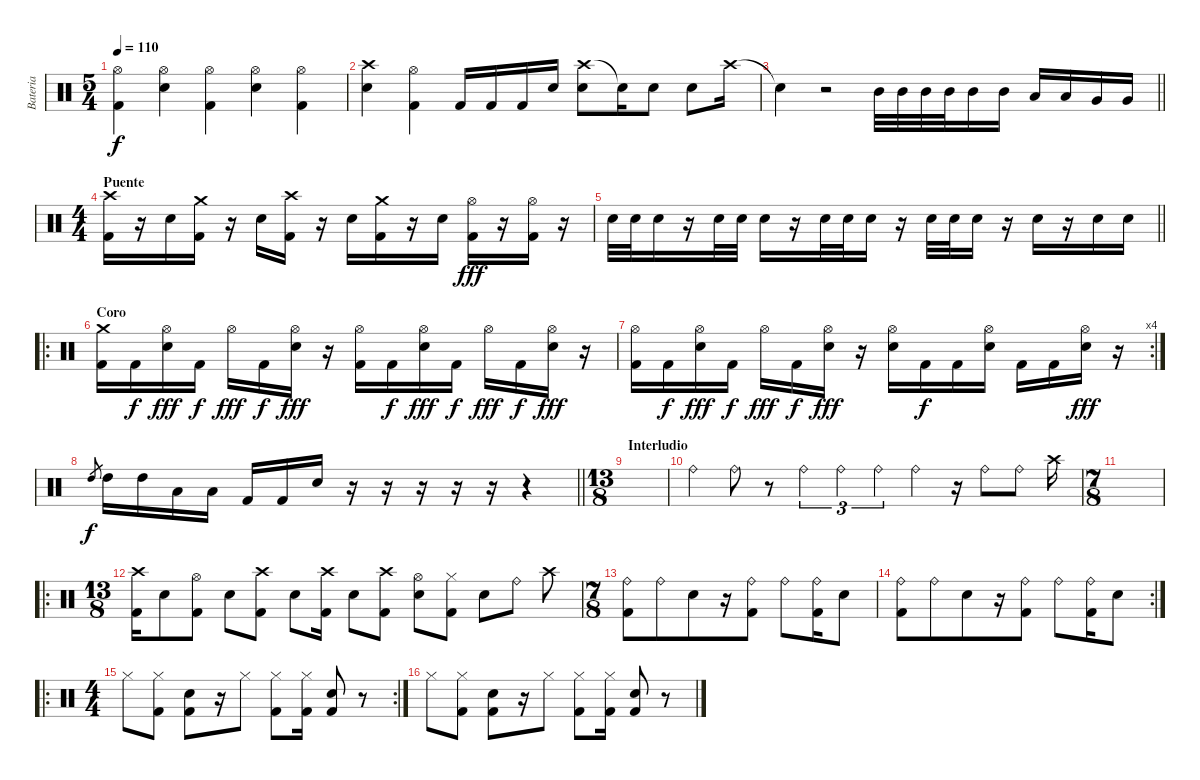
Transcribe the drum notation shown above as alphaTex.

\track ("Bateria " "Bateria ") {instrument percussion}
\staff {score}
\articulation defaults
\ts (5 4)
\tempo 110
\clef neutral
\ks c
("Hi-Hat (open)" "Kick (hit) 2").4{dy f} ("Hi-Hat (open)" "Electric Snare (hit)").4 ("Hi-Hat (open)" "Kick (hit) 2").4 ("Hi-Hat (open)" "Electric Snare (hit)").4 ("Hi-Hat (open)" "Kick (hit) 2").4 |
("Crash high (hit)" "Electric Snare (hit)").4 ("Hi-Hat (open)" "Kick (hit) 2").4 "Kick (hit) 2".16 "Kick (hit) 2".16 "Kick (hit) 2".16 "Electric Snare (hit)".16 ("Crash high (hit)" "Electric Snare (hit)").8 "Snare (hit)"{t}.16 "Electric Snare (hit)".8 "Electric Snare (hit)".8 "Crash high (hit)".16 |
\barLineRight lightlight "Snare (hit)"{t}.4
r.2 "Mid Tom (hit)".32 "Mid Tom (hit)".32 "Mid Tom (hit)".32 "Mid Tom (hit)".32 "Mid Tom (hit)".16 "Mid Tom (hit)".16 "Low Tom (hit)".16 "Low Tom (hit)".16 "Very Low Tom (hit)".16 "Very Low Tom (hit)".16 |
\ts (4 4)
\section ("" "Puente")
("Crash high (hit)" "Kick (hit) 2").16 r.16 "Electric Snare (hit)".16 ("Crash medium (hit)" "Kick (hit) 2").16 r.16 "Electric Snare (hit)".16 ("Crash high (hit)" "Kick (hit) 2").16 r.16 "Electric Snare (hit)".16 ("Crash medium (hit)" "Kick (hit) 2").16 r.16 "Electric Snare (hit)".16 ("Hi-Hat (open)" "Kick (hit) 2").16{dy fff} r.16 ("Hi-Hat (open)" "Kick (hit) 2").16 r.16 |
\barLineRight lightlight "Electric Snare (hit)".32 "Electric Snare (hit)".32 "Electric Snare (hit)".16
r.16 "Electric Snare (hit)".32 "Electric Snare (hit)".32 "Electric Snare (hit)".16 r.16 "Electric Snare (hit)".32 "Electric Snare (hit)".32 "Electric Snare (hit)".16 r.16 "Electric Snare (hit)".32 "Electric Snare (hit)".32 "Electric Snare (hit)".16 r.16 "Electric Snare (hit)".16 r.16 "Electric Snare (hit)".16 "Electric Snare (hit)".16 |
\ro
\section ("" "Coro")
("Crash medium (hit)" "Kick (hit) 2").16 "Kick (hit) 2".16{dy f} ("Hi-Hat (open)" "Electric Snare (hit)").16{dy fff} "Kick (hit) 2".16{dy f} "Hi-Hat (open)".16{dy fff} "Kick (hit) 2".16{dy f} ("Hi-Hat (open)" "Electric Snare (hit)").16{dy fff} r.16 ("Hi-Hat (open)" "Kick (hit) 2").16 "Kick (hit) 2".16{dy f} ("Hi-Hat (open)" "Electric Snare (hit)").16{dy fff} "Kick (hit) 2".16{dy f} "Hi-Hat (open)".16{dy fff} "Kick (hit) 2".16{dy f} ("Hi-Hat (open)" "Electric Snare (hit)").16{dy fff} r.16 |
\rc 4
("Hi-Hat (open)" "Kick (hit) 2").16 "Kick (hit) 2".16{dy f} ("Hi-Hat (open)" "Electric Snare (hit)").16{dy fff} "Kick (hit) 2".16{dy f} "Hi-Hat (open)".16{dy fff} "Kick (hit) 2".16{dy f} ("Hi-Hat (open)" "Electric Snare (hit)").16{dy fff} r.16 ("Hi-Hat (open)" "Electric Snare (hit)").16 "Kick (hit) 2".16{dy f} "Kick (hit) 2".16 ("Hi-Hat (open)" "Electric Snare (hit)").16 "Kick (hit) 2".16 "Kick (hit) 2".16 ("Hi-Hat (open)" "Electric Snare (hit)").16{dy fff} r.16 |
\barLineRight lightlight "High Tom (hit)".8{gr dy f} "High Tom (hit)".16 "High Tom (hit)".16 "Low Tom (hit)".16 "Low Tom (hit)".16 "Kick (hit) 2".16 "Kick (hit) 2".16 "Electric Snare (hit)".16
r.16 r.16 r.16 r.16 r.16 r.4 |
\ts (13 8)
\section ("" "Interludio")
|
"Ride (bell)".4 "Ride (bell)".8 r.8 "Ride (bell)".4{tu (3 2)} "Ride (bell)".4{tu (3 2)} "Ride (bell)".4{tu (3 2)} "Ride (bell)".4 r.16 "Ride (bell)".8 "Ride (bell)".8 "Crash high (hit)".16 |
\ts (7 8)
|
\ro
\ts (13 8)
("Crash high (hit)" "Kick (hit) 2").16 "Electric Snare (hit)".8 ("Hi-Hat (open)" "Kick (hit) 2").8 "Electric Snare (hit)".8 ("Crash high (hit)" "Kick (hit) 2").8 "Electric Snare (hit)".8 ("Crash high (hit)" "Kick (hit) 2").16 "Electric Snare (hit)".8 ("Crash high (hit)" "Kick (hit) 2").8 ("Hi-Hat (open)" "Electric Snare (hit)").8 ("Hi-Hat (closed)" "Kick (hit) 2").8 "Electric Snare (hit)".8 "Ride (bell)".8 "Crash high (hit)".8 |
\ts (7 8)
("Ride (bell)" "Kick (hit) 2").8 "Ride (bell)".8 "Electric Snare (hit)".8 r.16 ("Ride (bell)" "Kick (hit) 2").8 "Ride (bell)".8 ("Ride (bell)" "Kick (hit) 2").16 "Electric Snare (hit)".8 |
\rc 2
("Ride (bell)" "Kick (hit) 2").8 "Ride (bell)".8 "Electric Snare (hit)".8 r.16 ("Ride (bell)" "Kick (hit) 2").8 "Ride (bell)".8 ("Ride (bell)" "Kick (hit) 2").16 "Electric Snare (hit)".8 |
\ro
\rc 2
\ts (4 4)
"Hi-Hat (closed)".8 ("Hi-Hat (closed)" "Kick (hit) 2").8 ("Electric Snare (hit)" "Kick (hit) 2").8 r.16 "Hi-Hat (closed)".8 ("Hi-Hat (closed)" "Kick (hit) 2").8 ("Hi-Hat (closed)" "Kick (hit) 2").16 ("Electric Snare (hit)" "Kick (hit) 2").8 r.8 |
"Hi-Hat (closed)".8 ("Hi-Hat (closed)" "Kick (hit) 2").8 ("Electric Snare (hit)" "Kick (hit) 2").8 r.16 "Hi-Hat (closed)".8 ("Hi-Hat (closed)" "Kick (hit) 2").8 ("Hi-Hat (closed)" "Kick (hit) 2").16 ("Electric Snare (hit)" "Kick (hit) 2").8 r.8
